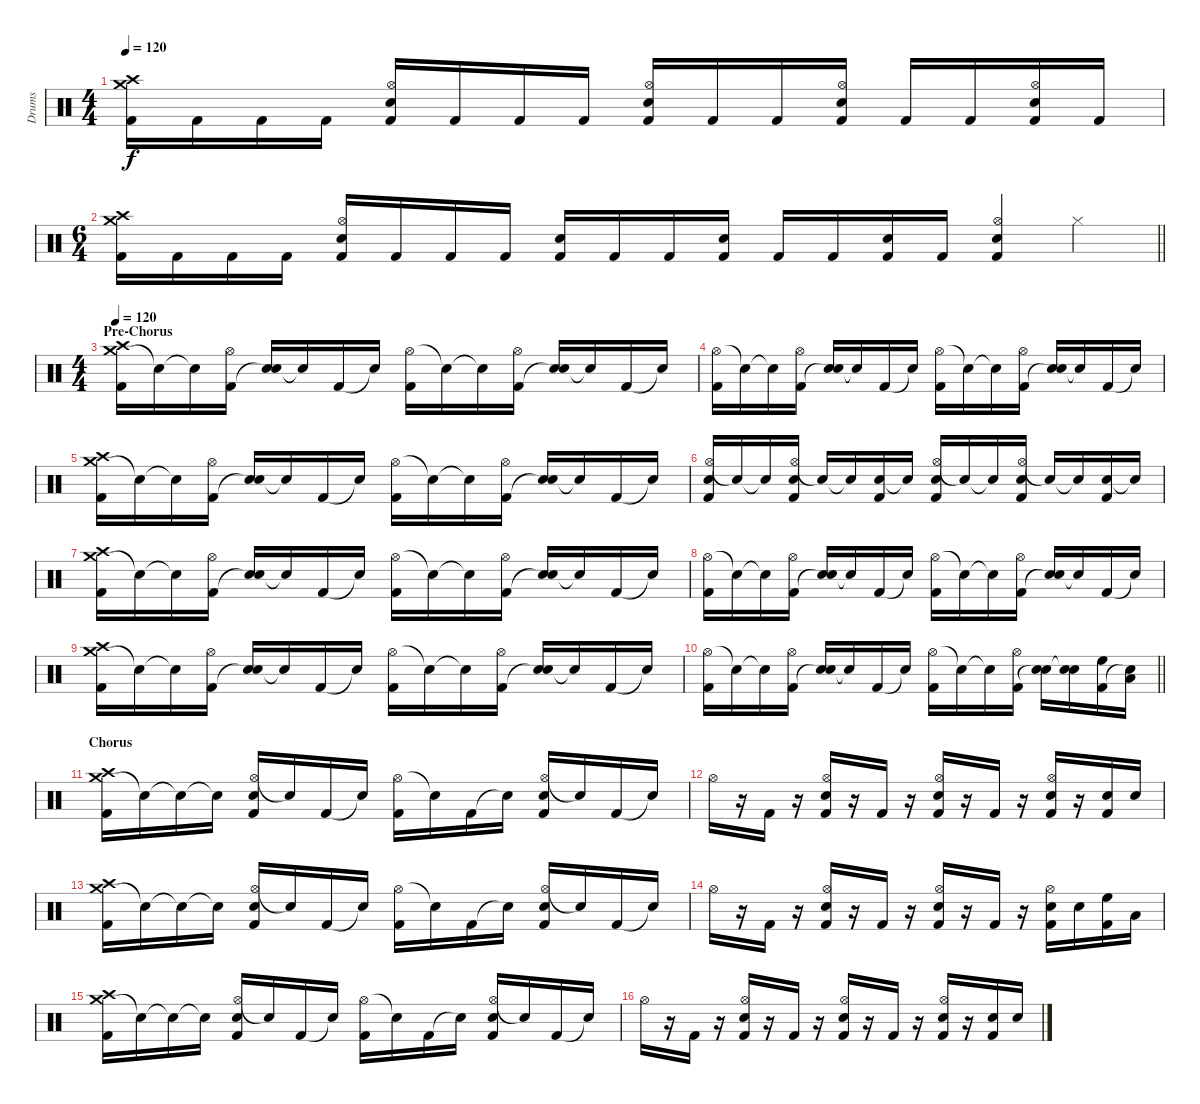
\track ("Drums" "Drums") {instrument percussion}
\staff {score}
\articulation defaults
\ts (4 4)
\tempo 120
\clef neutral
\ks c
("Crash medium (hit)" "Crash high (hit)" "Kick (hit) 2").16{dy f} "Kick (hit) 2".16 "Kick (hit) 2".16 "Kick (hit) 2".16 ("Hi-Hat (open)" "Electric Snare (hit)" "Kick (hit) 2").16 "Kick (hit) 2".16 "Kick (hit) 2".16 "Kick (hit) 2".16 ("Hi-Hat (open)" "Electric Snare (hit)" "Kick (hit) 2").16 "Kick (hit) 2".16 "Kick (hit) 2".16 ("Hi-Hat (open)" "Electric Snare (hit)" "Kick (hit) 2").16 "Kick (hit) 2".16 "Kick (hit) 2".16 ("Hi-Hat (open)" "Electric Snare (hit)" "Kick (hit) 2").16 "Kick (hit) 2".16 |
\ts (6 4)
\barLineRight lightlight
("Crash medium (hit)" "Crash high (hit)" "Kick (hit) 2").16 "Kick (hit) 2".16 "Kick (hit) 2".16 "Kick (hit) 2".16 ("Hi-Hat (open)" "Electric Snare (hit)" "Kick (hit) 2").16 "Kick (hit) 2".16 "Kick (hit) 2".16 "Kick (hit) 2".16 ("Electric Snare (hit)" "Kick (hit) 2").16 "Kick (hit) 2".16 "Kick (hit) 2".16 ("Electric Snare (hit)" "Kick (hit) 2").16 "Kick (hit) 2".16 "Kick (hit) 2".16 ("Electric Snare (hit)" "Kick (hit) 2").16 "Kick (hit) 2".16 ("Hi-Hat (open)" "Electric Snare (hit)" "Kick (hit) 2").4 "Hi-Hat (closed)"{x}.4 |
\ts (4 4)
\section ("" "Pre-Chorus")
\tempo 120
("Crash medium (hit)" "Crash high (hit)" "Kick (hit) 2").16 "Snare (hit)"{t}.16 "Snare (hit)"{t}.16 ("Hi-Hat (open)" "Kick (hit) 2").16 ("Electric Snare (hit)" "Snare (hit)"{t}).16 "Snare (hit)"{t}.16 "Kick (hit) 2".16 "Snare (hit)"{t}.16 ("Hi-Hat (open)" "Kick (hit) 2").16 "Snare (hit)"{t}.16 "Snare (hit)"{t}.16 ("Hi-Hat (open)" "Kick (hit) 2").16 ("Electric Snare (hit)" "Snare (hit)"{t}).16 "Snare (hit)"{t}.16 "Kick (hit) 2".16 "Snare (hit)"{t}.16 |
("Hi-Hat (open)" "Kick (hit) 2").16 "Snare (hit)"{t}.16 "Snare (hit)"{t}.16 ("Hi-Hat (open)" "Kick (hit) 2").16 ("Electric Snare (hit)" "Snare (hit)"{t}).16 "Snare (hit)"{t}.16 "Kick (hit) 2".16 "Snare (hit)"{t}.16 ("Hi-Hat (open)" "Kick (hit) 2").16 "Snare (hit)"{t}.16 "Snare (hit)"{t}.16 ("Hi-Hat (open)" "Kick (hit) 2").16 ("Electric Snare (hit)" "Snare (hit)"{t}).16 "Snare (hit)"{t}.16 "Kick (hit) 2".16 "Snare (hit)"{t}.16 |
("Crash medium (hit)" "Crash high (hit)" "Kick (hit) 2").16 "Snare (hit)"{t}.16 "Snare (hit)"{t}.16 ("Hi-Hat (open)" "Kick (hit) 2").16 ("Electric Snare (hit)" "Snare (hit)"{t}).16 "Snare (hit)"{t}.16 "Kick (hit) 2".16 "Snare (hit)"{t}.16 ("Hi-Hat (open)" "Kick (hit) 2").16 "Snare (hit)"{t}.16 "Snare (hit)"{t}.16 ("Hi-Hat (open)" "Kick (hit) 2").16 ("Electric Snare (hit)" "Snare (hit)"{t}).16 "Snare (hit)"{t}.16 "Kick (hit) 2".16 "Snare (hit)"{t}.16 |
("Hi-Hat (open)" "Electric Snare (hit)" "Kick (hit) 2").16 "Snare (hit)"{t}.16 "Snare (hit)"{t}.16 ("Hi-Hat (open)" "Electric Snare (hit)" "Kick (hit) 2").16 "Snare (hit)"{t}.16 "Snare (hit)"{t}.16 ("Electric Snare (hit)" "Kick (hit) 2").16 "Snare (hit)"{t}.16 ("Hi-Hat (open)" "Electric Snare (hit)" "Kick (hit) 2").16 "Snare (hit)"{t}.16 "Snare (hit)"{t}.16 ("Hi-Hat (open)" "Electric Snare (hit)" "Kick (hit) 2").16 "Snare (hit)"{t}.16 "Snare (hit)"{t}.16 ("Electric Snare (hit)" "Kick (hit) 2").16 "Snare (hit)"{t}.16 |
("Crash medium (hit)" "Crash high (hit)" "Kick (hit) 2").16 "Snare (hit)"{t}.16 "Snare (hit)"{t}.16 ("Hi-Hat (open)" "Kick (hit) 2").16 ("Electric Snare (hit)" "Snare (hit)"{t}).16 "Snare (hit)"{t}.16 "Kick (hit) 2".16 "Snare (hit)"{t}.16 ("Hi-Hat (open)" "Kick (hit) 2").16 "Snare (hit)"{t}.16 "Snare (hit)"{t}.16 ("Hi-Hat (open)" "Kick (hit) 2").16 ("Electric Snare (hit)" "Snare (hit)"{t}).16 "Snare (hit)"{t}.16 "Kick (hit) 2".16 "Snare (hit)"{t}.16 |
("Hi-Hat (open)" "Kick (hit) 2").16 "Snare (hit)"{t}.16 "Snare (hit)"{t}.16 ("Hi-Hat (open)" "Kick (hit) 2").16 ("Electric Snare (hit)" "Snare (hit)"{t}).16 "Snare (hit)"{t}.16 "Kick (hit) 2".16 "Snare (hit)"{t}.16 ("Hi-Hat (open)" "Kick (hit) 2").16 "Snare (hit)"{t}.16 "Snare (hit)"{t}.16 ("Hi-Hat (open)" "Kick (hit) 2").16 ("Electric Snare (hit)" "Snare (hit)"{t}).16 "Snare (hit)"{t}.16 "Kick (hit) 2".16 "Snare (hit)"{t}.16 |
("Crash medium (hit)" "Crash high (hit)" "Kick (hit) 2").16 "Snare (hit)"{t}.16 "Snare (hit)"{t}.16 ("Hi-Hat (open)" "Kick (hit) 2").16 ("Electric Snare (hit)" "Snare (hit)"{t}).16 "Snare (hit)"{t}.16 "Kick (hit) 2".16 "Snare (hit)"{t}.16 ("Hi-Hat (open)" "Kick (hit) 2").16 "Snare (hit)"{t}.16 "Snare (hit)"{t}.16 ("Hi-Hat (open)" "Kick (hit) 2").16 ("Electric Snare (hit)" "Snare (hit)"{t}).16 "Snare (hit)"{t}.16 "Kick (hit) 2".16 "Snare (hit)"{t}.16 |
\barLineRight lightlight
("Hi-Hat (open)" "Kick (hit) 2").16 "Snare (hit)"{t}.16 "Snare (hit)"{t}.16 ("Hi-Hat (open)" "Kick (hit) 2").16 ("Electric Snare (hit)" "Snare (hit)"{t}).16 "Snare (hit)"{t}.16 "Kick (hit) 2".16 "Snare (hit)"{t}.16 ("Hi-Hat (open)" "Kick (hit) 2").16 "Snare (hit)"{t}.16 "Snare (hit)"{t}.16 ("Hi-Hat (open)" "Kick (hit) 2").16 ("Electric Snare (hit)" "Snare (hit)"{t}).16 ("Electric Snare (hit)" "Snare (hit)"{t}).16 ("High Floor Tom (hit)" "Kick (hit) 2").16 ("Low Tom (hit)" "Snare (hit)"{t}).16 |
\section ("" "Chorus")
("Crash medium (hit)" "Crash high (hit)" "Kick (hit) 2").16 "Snare (hit)"{t}.16 "Snare (hit)"{t}.16 "Snare (hit)"{t}.16 ("Hi-Hat (open)" "Electric Snare (hit)" "Kick (hit) 2").16 "Snare (hit)"{t}.16 "Kick (hit) 2".16 "Snare (hit)"{t}.16 ("Hi-Hat (open)" "Kick (hit) 2").16 "Snare (hit)"{t}.16 "Kick (hit) 2".16 "Snare (hit)"{t}.16 ("Hi-Hat (open)" "Electric Snare (hit)" "Kick (hit) 2").16 "Snare (hit)"{t}.16 "Kick (hit) 2".16 "Snare (hit)"{t}.16 |
"Hi-Hat (open)".16 r.16 "Kick (hit) 2".16 r.16 ("Hi-Hat (open)" "Electric Snare (hit)" "Kick (hit) 2").16 r.16 "Kick (hit) 2".16 r.16 ("Hi-Hat (open)" "Electric Snare (hit)" "Kick (hit) 2").16 r.16 "Kick (hit) 2".16 r.16 ("Hi-Hat (open)" "Electric Snare (hit)" "Kick (hit) 2").16 r.16 ("Electric Snare (hit)" "Kick (hit) 2").16 "Electric Snare (hit)".16 |
("Crash medium (hit)" "Crash high (hit)" "Kick (hit) 2").16 "Snare (hit)"{t}.16 "Snare (hit)"{t}.16 "Snare (hit)"{t}.16 ("Hi-Hat (open)" "Electric Snare (hit)" "Kick (hit) 2").16 "Snare (hit)"{t}.16 "Kick (hit) 2".16 "Snare (hit)"{t}.16 ("Hi-Hat (open)" "Kick (hit) 2").16 "Snare (hit)"{t}.16 "Kick (hit) 2".16 "Snare (hit)"{t}.16 ("Hi-Hat (open)" "Electric Snare (hit)" "Kick (hit) 2").16 "Snare (hit)"{t}.16 "Kick (hit) 2".16 "Snare (hit)"{t}.16 |
"Hi-Hat (open)".16 r.16 "Kick (hit) 2".16 r.16 ("Hi-Hat (open)" "Electric Snare (hit)" "Kick (hit) 2").16 r.16 "Kick (hit) 2".16 r.16 ("Hi-Hat (open)" "Electric Snare (hit)" "Kick (hit) 2").16 r.16 "Kick (hit) 2".16 r.16 ("Hi-Hat (open)" "Electric Snare (hit)" "Kick (hit) 2").16 "Electric Snare (hit)".16 ("High Floor Tom (hit)" "Kick (hit) 2").16 "Low Tom (hit)".16 |
("Crash medium (hit)" "Crash high (hit)" "Kick (hit) 2").16 "Snare (hit)"{t}.16 "Snare (hit)"{t}.16 "Snare (hit)"{t}.16 ("Hi-Hat (open)" "Electric Snare (hit)" "Kick (hit) 2").16 "Snare (hit)"{t}.16 "Kick (hit) 2".16 "Snare (hit)"{t}.16 ("Hi-Hat (open)" "Kick (hit) 2").16 "Snare (hit)"{t}.16 "Kick (hit) 2".16 "Snare (hit)"{t}.16 ("Hi-Hat (open)" "Electric Snare (hit)" "Kick (hit) 2").16 "Snare (hit)"{t}.16 "Kick (hit) 2".16 "Snare (hit)"{t}.16 |
"Hi-Hat (open)".16 r.16 "Kick (hit) 2".16 r.16 ("Hi-Hat (open)" "Electric Snare (hit)" "Kick (hit) 2").16 r.16 "Kick (hit) 2".16 r.16 ("Hi-Hat (open)" "Electric Snare (hit)" "Kick (hit) 2").16 r.16 "Kick (hit) 2".16 r.16 ("Hi-Hat (open)" "Electric Snare (hit)" "Kick (hit) 2").16 r.16 ("Electric Snare (hit)" "Kick (hit) 2").16 "Electric Snare (hit)".16
